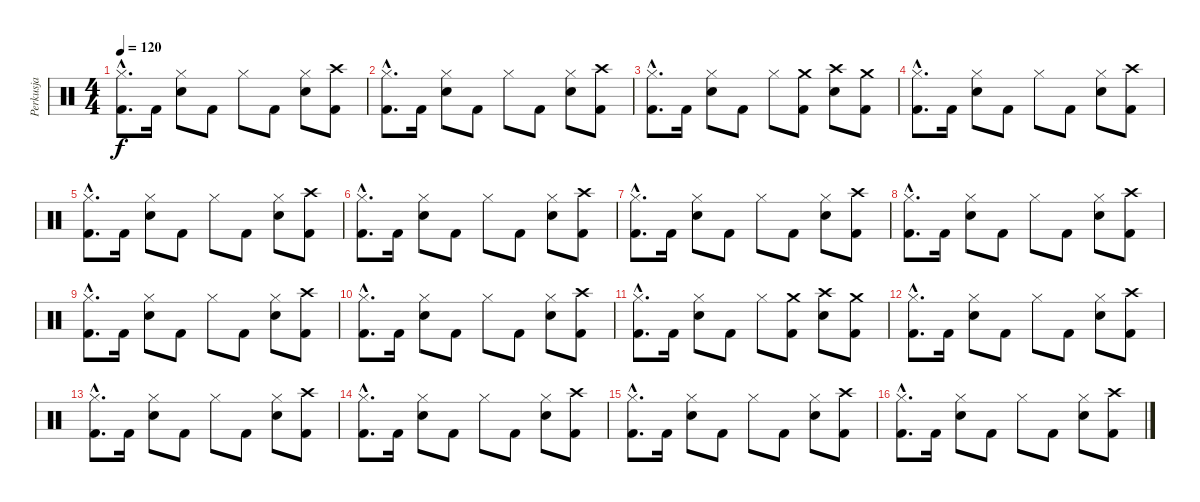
\track ("Perkusja" "Perkusja") {instrument percussion}
\staff {score}
\articulation defaults
\ts (4 4)
\tempo 120
\clef neutral
\ks c
("Hi-Hat (closed)"{hac} "Kick (hit) 2"{hac}).8{d dy f} "Kick (hit) 2".16 ("Hi-Hat (closed)" "Snare (hit) 2").8 "Kick (hit) 2".8 "Hi-Hat (closed)".8 "Kick (hit) 2".8 ("Hi-Hat (closed)" "Snare (hit) 2").8 ("Crash high (hit)" "Kick (hit) 2").8 |
("Hi-Hat (closed)"{hac} "Kick (hit) 2"{hac}).8{d} "Kick (hit) 2".16 ("Hi-Hat (closed)" "Snare (hit) 2").8 "Kick (hit) 2".8 "Hi-Hat (closed)".8 "Kick (hit) 2".8 ("Hi-Hat (closed)" "Snare (hit) 2").8 ("Crash high (hit)" "Kick (hit) 2").8 |
("Hi-Hat (closed)"{hac} "Kick (hit) 2"{hac}).8{d} "Kick (hit) 2".16 ("Hi-Hat (closed)" "Snare (hit) 2").8 "Kick (hit) 2".8 "Hi-Hat (closed)".8 ("Crash medium (hit)" "Kick (hit) 2").8 ("Crash high (hit)" "Snare (hit) 2").8 ("Crash medium (hit)" "Kick (hit) 2").8 |
("Hi-Hat (closed)"{hac} "Kick (hit) 2"{hac}).8{d} "Kick (hit) 2".16 ("Hi-Hat (closed)" "Snare (hit) 2").8 "Kick (hit) 2".8 "Hi-Hat (closed)".8 "Kick (hit) 2".8 ("Hi-Hat (closed)" "Snare (hit) 2").8 ("Crash high (hit)" "Kick (hit) 2").8 |
("Hi-Hat (closed)"{hac} "Kick (hit) 2"{hac}).8{d} "Kick (hit) 2".16 ("Hi-Hat (closed)" "Snare (hit) 2").8 "Kick (hit) 2".8 "Hi-Hat (closed)".8 "Kick (hit) 2".8 ("Hi-Hat (closed)" "Snare (hit) 2").8 ("Crash high (hit)" "Kick (hit) 2").8 |
("Hi-Hat (closed)"{hac} "Kick (hit) 2"{hac}).8{d} "Kick (hit) 2".16 ("Hi-Hat (closed)" "Snare (hit) 2").8 "Kick (hit) 2".8 "Hi-Hat (closed)".8 "Kick (hit) 2".8 ("Hi-Hat (closed)" "Snare (hit) 2").8 ("Crash high (hit)" "Kick (hit) 2").8 |
("Hi-Hat (closed)"{hac} "Kick (hit) 2"{hac}).8{d} "Kick (hit) 2".16 ("Hi-Hat (closed)" "Snare (hit) 2").8 "Kick (hit) 2".8 "Hi-Hat (closed)".8 "Kick (hit) 2".8 ("Hi-Hat (closed)" "Snare (hit) 2").8 ("Crash high (hit)" "Kick (hit) 2").8 |
("Hi-Hat (closed)"{hac} "Kick (hit) 2"{hac}).8{d} "Kick (hit) 2".16 ("Hi-Hat (closed)" "Snare (hit) 2").8 "Kick (hit) 2".8 "Hi-Hat (closed)".8 "Kick (hit) 2".8 ("Hi-Hat (closed)" "Snare (hit) 2").8 ("Crash high (hit)" "Kick (hit) 2").8 |
("Hi-Hat (closed)"{hac} "Kick (hit) 2"{hac}).8{d} "Kick (hit) 2".16 ("Hi-Hat (closed)" "Snare (hit) 2").8 "Kick (hit) 2".8 "Hi-Hat (closed)".8 "Kick (hit) 2".8 ("Hi-Hat (closed)" "Snare (hit) 2").8 ("Crash high (hit)" "Kick (hit) 2").8 |
("Hi-Hat (closed)"{hac} "Kick (hit) 2"{hac}).8{d} "Kick (hit) 2".16 ("Hi-Hat (closed)" "Snare (hit) 2").8 "Kick (hit) 2".8 "Hi-Hat (closed)".8 "Kick (hit) 2".8 ("Hi-Hat (closed)" "Snare (hit) 2").8 ("Crash high (hit)" "Kick (hit) 2").8 |
("Hi-Hat (closed)"{hac} "Kick (hit) 2"{hac}).8{d} "Kick (hit) 2".16 ("Hi-Hat (closed)" "Snare (hit) 2").8 "Kick (hit) 2".8 "Hi-Hat (closed)".8 ("Crash medium (hit)" "Kick (hit) 2").8 ("Crash high (hit)" "Snare (hit) 2").8 ("Crash medium (hit)" "Kick (hit) 2").8 |
("Hi-Hat (closed)"{hac} "Kick (hit) 2"{hac}).8{d} "Kick (hit) 2".16 ("Hi-Hat (closed)" "Snare (hit) 2").8 "Kick (hit) 2".8 "Hi-Hat (closed)".8 "Kick (hit) 2".8 ("Hi-Hat (closed)" "Snare (hit) 2").8 ("Crash high (hit)" "Kick (hit) 2").8 |
("Hi-Hat (closed)"{hac} "Kick (hit) 2"{hac}).8{d} "Kick (hit) 2".16 ("Hi-Hat (closed)" "Snare (hit) 2").8 "Kick (hit) 2".8 "Hi-Hat (closed)".8 "Kick (hit) 2".8 ("Hi-Hat (closed)" "Snare (hit) 2").8 ("Crash high (hit)" "Kick (hit) 2").8 |
("Hi-Hat (closed)"{hac} "Kick (hit) 2"{hac}).8{d} "Kick (hit) 2".16 ("Hi-Hat (closed)" "Snare (hit) 2").8 "Kick (hit) 2".8 "Hi-Hat (closed)".8 "Kick (hit) 2".8 ("Hi-Hat (closed)" "Snare (hit) 2").8 ("Crash high (hit)" "Kick (hit) 2").8 |
("Hi-Hat (closed)"{hac} "Kick (hit) 2"{hac}).8{d} "Kick (hit) 2".16 ("Hi-Hat (closed)" "Snare (hit) 2").8 "Kick (hit) 2".8 "Hi-Hat (closed)".8 "Kick (hit) 2".8 ("Hi-Hat (closed)" "Snare (hit) 2").8 ("Crash high (hit)" "Kick (hit) 2").8 |
("Hi-Hat (closed)"{hac} "Kick (hit) 2"{hac}).8{d} "Kick (hit) 2".16 ("Hi-Hat (closed)" "Snare (hit) 2").8 "Kick (hit) 2".8 "Hi-Hat (closed)".8 "Kick (hit) 2".8 ("Hi-Hat (closed)" "Snare (hit) 2").8 ("Crash high (hit)" "Kick (hit) 2").8
